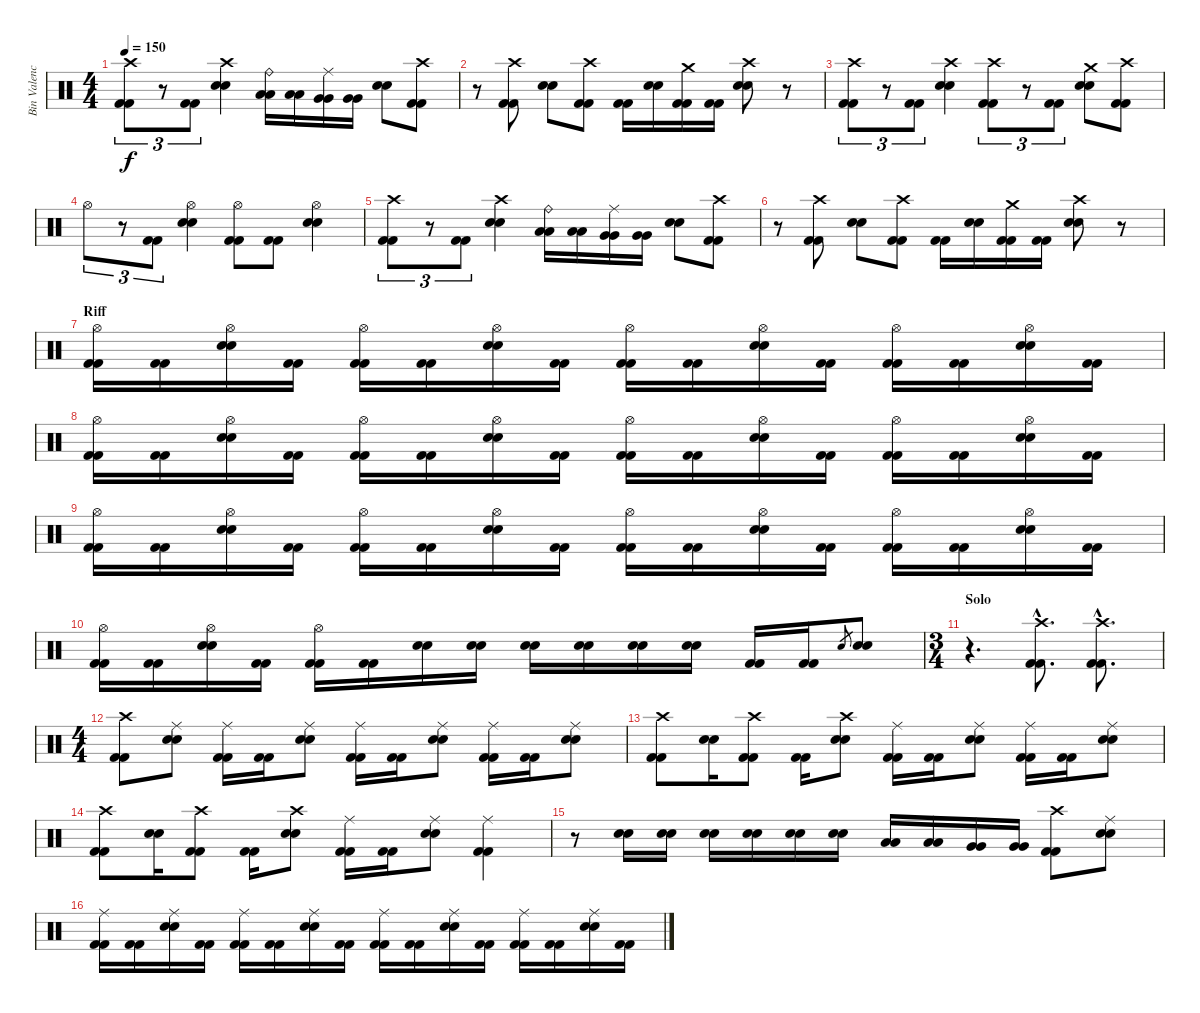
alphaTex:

\track ("Bin Valencia (bateria)" "Bin Valenc") {instrument percussion}
\staff {score}
\articulation defaults
\ts (4 4)
\tempo 150
\clef neutral
\ks c
("Crash high (hit)" "Kick (hit) 2" "Kick (hit) 2").8{tu (3 2) dy f} r.8{tu (3 2)} ("Kick (hit) 2" "Kick (hit) 2").8{tu (3 2)} ("Crash high (hit)" "Snare (hit) 2" "Snare (hit) 2").4 ("Ride (bell)" "Low Tom (hit)" "Low Tom (hit)").16 ("Low Tom (hit)" "Low Tom (hit)").16 ("Ride (middle)" "Very Low Tom (hit)" "Very Low Tom (hit)").16 ("Very Low Tom (hit)" "Very Low Tom (hit)").16 ("Electric Snare (hit)" "Electric Snare (hit)").8 ("Crash high (hit)" "Kick (hit) 2" "Kick (hit) 2").8 |
r.8 ("Crash high (hit)" "Kick (hit) 2" "Kick (hit) 2").8 ("Snare (hit) 2" "Snare (hit) 2").8 ("Crash high (hit)" "Kick (hit) 2" "Kick (hit) 2").8 ("Kick (hit) 2" "Kick (hit) 2").16 ("Snare (hit) 2" "Snare (hit) 2").16 ("Crash medium (hit)" "Kick (hit) 2" "Kick (hit) 2").16 ("Kick (hit) 2" "Kick (hit) 2").16 ("Crash high (hit)" "Snare (hit) 2" "Snare (hit) 2").8 r.8 |
("Crash high (hit)" "Kick (hit) 2" "Kick (hit) 2").8{tu (3 2)} r.8{tu (3 2)} ("Kick (hit) 2" "Kick (hit) 2").8{tu (3 2)} ("Crash high (hit)" "Snare (hit) 2" "Snare (hit) 2").4 ("Crash high (hit)" "Kick (hit) 2" "Kick (hit) 2").8{tu (3 2)} r.8{tu (3 2)} ("Kick (hit) 2" "Kick (hit) 2").8{tu (3 2)} ("Crash medium (hit)" "Snare (hit) 2" "Snare (hit) 2").8 ("Crash high (hit)" "Kick (hit) 2" "Kick (hit) 2").8 |
"Hi-Hat (open)".8{tu (3 2)} r.8{tu (3 2)} ("Kick (hit) 2" "Kick (hit) 2").8{tu (3 2)} ("Hi-Hat (open)" "Snare (hit) 2" "Snare (hit) 2").4 ("Hi-Hat (open)" "Kick (hit) 2" "Kick (hit) 2").8 ("Kick (hit) 2" "Kick (hit) 2").8 ("Hi-Hat (open)" "Snare (hit) 2" "Snare (hit) 2").4 |
("Crash high (hit)" "Kick (hit) 2" "Kick (hit) 2").8{tu (3 2)} r.8{tu (3 2)} ("Kick (hit) 2" "Kick (hit) 2").8{tu (3 2)} ("Crash high (hit)" "Snare (hit) 2" "Snare (hit) 2").4 ("Ride (bell)" "Low Tom (hit)" "Low Tom (hit)").16 ("Low Tom (hit)" "Low Tom (hit)").16 ("Ride (middle)" "Very Low Tom (hit)" "Very Low Tom (hit)").16 ("Very Low Tom (hit)" "Very Low Tom (hit)").16 ("Electric Snare (hit)" "Electric Snare (hit)").8 ("Crash high (hit)" "Kick (hit) 2" "Kick (hit) 2").8 |
r.8 ("Crash high (hit)" "Kick (hit) 2" "Kick (hit) 2").8 ("Snare (hit) 2" "Snare (hit) 2").8 ("Crash high (hit)" "Kick (hit) 2" "Kick (hit) 2").8 ("Kick (hit) 2" "Kick (hit) 2").16 ("Snare (hit) 2" "Snare (hit) 2").16 ("Crash medium (hit)" "Kick (hit) 2" "Kick (hit) 2").16 ("Kick (hit) 2" "Kick (hit) 2").16 ("Crash high (hit)" "Snare (hit) 2" "Snare (hit) 2").8 r.8 |
\section ("" "Riff")
("Hi-Hat (open)" "Kick (hit) 2" "Kick (hit) 2").16 ("Kick (hit) 2" "Kick (hit) 2").16 ("Hi-Hat (open)" "Snare (hit) 2" "Snare (hit) 2").16 ("Kick (hit) 2" "Kick (hit) 2").16 ("Hi-Hat (open)" "Kick (hit) 2" "Kick (hit) 2").16 ("Kick (hit) 2" "Kick (hit) 2").16 ("Hi-Hat (open)" "Snare (hit) 2" "Snare (hit) 2").16 ("Kick (hit) 2" "Kick (hit) 2").16 ("Hi-Hat (open)" "Kick (hit) 2" "Kick (hit) 2").16 ("Kick (hit) 2" "Kick (hit) 2").16 ("Hi-Hat (open)" "Snare (hit) 2" "Snare (hit) 2").16 ("Kick (hit) 2" "Kick (hit) 2").16 ("Hi-Hat (open)" "Kick (hit) 2" "Kick (hit) 2").16 ("Kick (hit) 2" "Kick (hit) 2").16 ("Hi-Hat (open)" "Snare (hit) 2" "Snare (hit) 2").16 ("Kick (hit) 2" "Kick (hit) 2").16 |
("Hi-Hat (open)" "Kick (hit) 2" "Kick (hit) 2").16 ("Kick (hit) 2" "Kick (hit) 2").16 ("Hi-Hat (open)" "Snare (hit) 2" "Snare (hit) 2").16 ("Kick (hit) 2" "Kick (hit) 2").16 ("Hi-Hat (open)" "Kick (hit) 2" "Kick (hit) 2").16 ("Kick (hit) 2" "Kick (hit) 2").16 ("Hi-Hat (open)" "Snare (hit) 2" "Snare (hit) 2").16 ("Kick (hit) 2" "Kick (hit) 2").16 ("Hi-Hat (open)" "Kick (hit) 2" "Kick (hit) 2").16 ("Kick (hit) 2" "Kick (hit) 2").16 ("Hi-Hat (open)" "Snare (hit) 2" "Snare (hit) 2").16 ("Kick (hit) 2" "Kick (hit) 2").16 ("Hi-Hat (open)" "Kick (hit) 2" "Kick (hit) 2").16 ("Kick (hit) 2" "Kick (hit) 2").16 ("Hi-Hat (open)" "Snare (hit) 2" "Snare (hit) 2").16 ("Kick (hit) 2" "Kick (hit) 2").16 |
("Hi-Hat (open)" "Kick (hit) 2" "Kick (hit) 2").16 ("Kick (hit) 2" "Kick (hit) 2").16 ("Hi-Hat (open)" "Snare (hit) 2" "Snare (hit) 2").16 ("Kick (hit) 2" "Kick (hit) 2").16 ("Hi-Hat (open)" "Kick (hit) 2" "Kick (hit) 2").16 ("Kick (hit) 2" "Kick (hit) 2").16 ("Hi-Hat (open)" "Snare (hit) 2" "Snare (hit) 2").16 ("Kick (hit) 2" "Kick (hit) 2").16 ("Hi-Hat (open)" "Kick (hit) 2" "Kick (hit) 2").16 ("Kick (hit) 2" "Kick (hit) 2").16 ("Hi-Hat (open)" "Snare (hit) 2" "Snare (hit) 2").16 ("Kick (hit) 2" "Kick (hit) 2").16 ("Hi-Hat (open)" "Kick (hit) 2" "Kick (hit) 2").16 ("Kick (hit) 2" "Kick (hit) 2").16 ("Hi-Hat (open)" "Snare (hit) 2" "Snare (hit) 2").16 ("Kick (hit) 2" "Kick (hit) 2").16 |
("Hi-Hat (open)" "Kick (hit) 2" "Kick (hit) 2").16 ("Kick (hit) 2" "Kick (hit) 2").16 ("Hi-Hat (open)" "Snare (hit) 2" "Snare (hit) 2").16 ("Kick (hit) 2" "Kick (hit) 2").16 ("Hi-Hat (open)" "Kick (hit) 2" "Kick (hit) 2").16 ("Kick (hit) 2" "Kick (hit) 2").16 ("Snare (hit) 2" "Snare (hit) 2").16 ("Snare (hit) 2" "Snare (hit) 2").16 ("Snare (hit) 2" "Snare (hit) 2").16 ("Snare (hit) 2" "Snare (hit) 2").16 ("Snare (hit) 2" "Snare (hit) 2").16 ("Snare (hit) 2" "Snare (hit) 2").16 ("Kick (hit) 2" "Kick (hit) 2").16 ("Kick (hit) 2" "Kick (hit) 2").16 "Snare (hit) 2".8{gr} ("Snare (hit) 2" "Snare (hit) 2").8 |
\ts (3 4)
\section ("" "Solo")
r.4{d} ("Crash high (hit)"{hac} "Kick (hit) 2"{hac} "Kick (hit) 2"{hac}).8{d} ("Crash high (hit)"{hac} "Kick (hit) 2"{hac} "Kick (hit) 2"{hac}).8{d} |
\ts (4 4)
("Crash high (hit)" "Kick (hit) 2" "Kick (hit) 2").8 ("Ride (middle)" "Snare (hit) 2" "Snare (hit) 2").8 ("Ride (middle)" "Kick (hit) 2" "Kick (hit) 2").16 ("Kick (hit) 2" "Kick (hit) 2").16 ("Ride (middle)" "Snare (hit) 2" "Snare (hit) 2").8 ("Ride (middle)" "Kick (hit) 2" "Kick (hit) 2").16 ("Kick (hit) 2" "Kick (hit) 2").16 ("Ride (middle)" "Snare (hit) 2" "Snare (hit) 2").8 ("Ride (middle)" "Kick (hit) 2" "Kick (hit) 2").16 ("Kick (hit) 2" "Kick (hit) 2").16 ("Ride (middle)" "Snare (hit) 2" "Snare (hit) 2").8 |
("Crash high (hit)" "Kick (hit) 2" "Kick (hit) 2").8 ("Snare (hit) 2" "Snare (hit) 2").16 ("Crash high (hit)" "Kick (hit) 2" "Kick (hit) 2").8 ("Kick (hit) 2" "Kick (hit) 2").16 ("Crash high (hit)" "Snare (hit) 2" "Snare (hit) 2").8 ("Ride (middle)" "Kick (hit) 2" "Kick (hit) 2").16 ("Kick (hit) 2" "Kick (hit) 2").16 ("Ride (middle)" "Snare (hit) 2" "Snare (hit) 2").8 ("Ride (middle)" "Kick (hit) 2" "Kick (hit) 2").16 ("Kick (hit) 2" "Kick (hit) 2").16 ("Ride (middle)" "Snare (hit) 2" "Snare (hit) 2").8 |
("Crash high (hit)" "Kick (hit) 2" "Kick (hit) 2").8 ("Snare (hit) 2" "Snare (hit) 2").16 ("Crash high (hit)" "Kick (hit) 2" "Kick (hit) 2").8 ("Kick (hit) 2" "Kick (hit) 2").16 ("Crash high (hit)" "Snare (hit) 2" "Snare (hit) 2").8 ("Ride (middle)" "Kick (hit) 2" "Kick (hit) 2").16 ("Kick (hit) 2" "Kick (hit) 2").16 ("Ride (middle)" "Snare (hit) 2" "Snare (hit) 2").8 ("Ride (middle)" "Kick (hit) 2" "Kick (hit) 2").4 |
r.8 ("Snare (hit) 2" "Snare (hit) 2").16 ("Snare (hit) 2" "Snare (hit) 2").16 ("Snare (hit) 2" "Snare (hit) 2").16 ("Snare (hit) 2" "Snare (hit) 2").16 ("Snare (hit) 2" "Snare (hit) 2").16 ("Snare (hit) 2" "Snare (hit) 2").16 ("Low Tom (hit)" "Low Tom (hit)").16 ("Low Tom (hit)" "Low Tom (hit)").16 ("Very Low Tom (hit)" "Very Low Tom (hit)").16 ("Very Low Tom (hit)" "Very Low Tom (hit)").16 ("Crash high (hit)" "Kick (hit) 2" "Kick (hit) 2").8 ("Ride (middle)" "Snare (hit) 2" "Snare (hit) 2").8 |
("Ride (middle)" "Kick (hit) 2" "Kick (hit) 2").16 ("Kick (hit) 2" "Kick (hit) 2").16 ("Ride (middle)" "Snare (hit) 2" "Snare (hit) 2").16 ("Kick (hit) 2" "Kick (hit) 2").16 ("Ride (middle)" "Kick (hit) 2" "Kick (hit) 2").16 ("Kick (hit) 2" "Kick (hit) 2").16 ("Ride (middle)" "Snare (hit) 2" "Snare (hit) 2").16 ("Kick (hit) 2" "Kick (hit) 2").16 ("Ride (middle)" "Kick (hit) 2" "Kick (hit) 2").16 ("Kick (hit) 2" "Kick (hit) 2").16 ("Ride (middle)" "Snare (hit) 2" "Snare (hit) 2").16 ("Kick (hit) 2" "Kick (hit) 2").16 ("Ride (middle)" "Kick (hit) 2" "Kick (hit) 2").16 ("Kick (hit) 2" "Kick (hit) 2").16 ("Ride (middle)" "Snare (hit) 2" "Snare (hit) 2").16 ("Kick (hit) 2" "Kick (hit) 2").16
